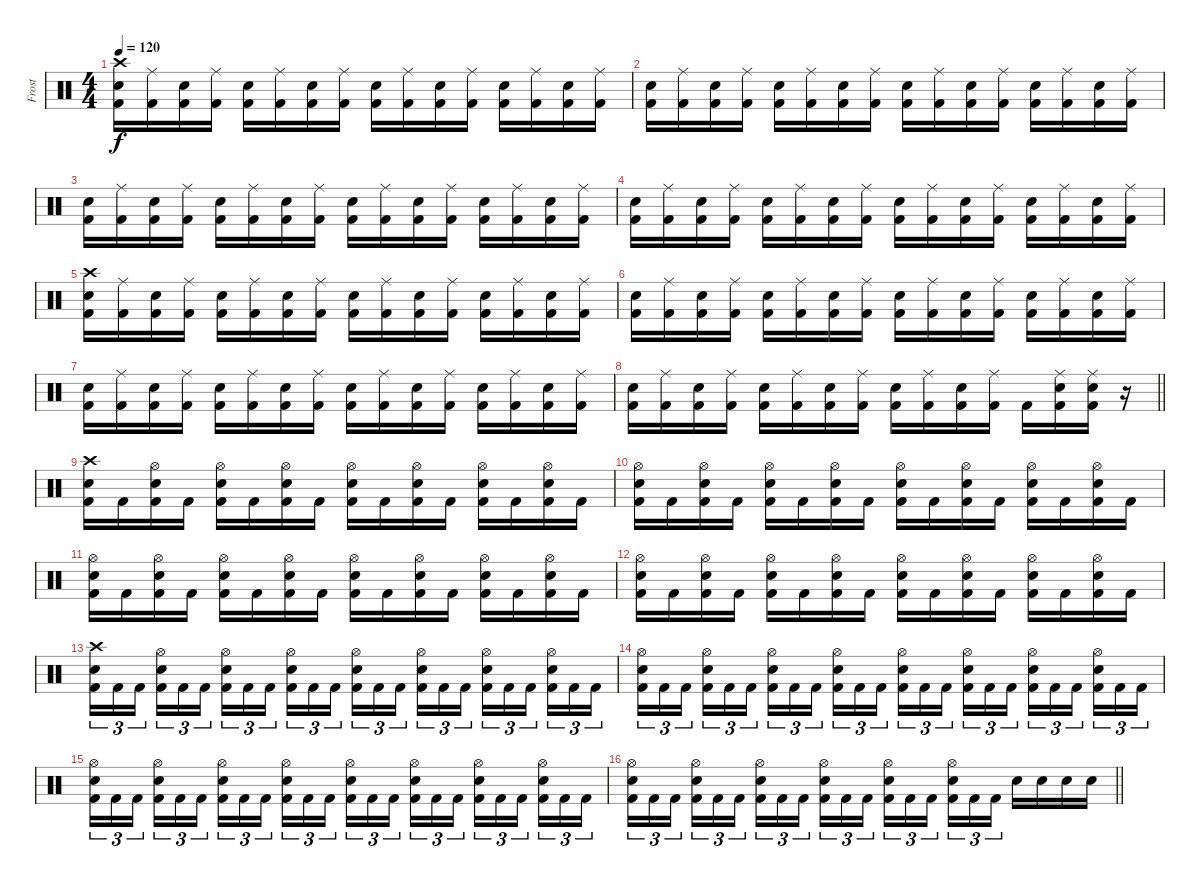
\track ("Frost" "Frost") {instrument percussion}
\staff {score}
\articulation defaults
\ts (4 4)
\tempo 120
\clef neutral
\ks c
("Crash high (hit)" "Electric Snare (hit)" "Kick (hit) 2").16{dy f} ("Ride (middle)" "Kick (hit) 2").16 ("Electric Snare (hit)" "Kick (hit) 2").16 ("Ride (middle)" "Kick (hit) 2").16 ("Electric Snare (hit)" "Kick (hit) 2").16 ("Ride (middle)" "Kick (hit) 2").16 ("Electric Snare (hit)" "Kick (hit) 2").16 ("Ride (middle)" "Kick (hit) 2").16 ("Electric Snare (hit)" "Kick (hit) 2").16 ("Ride (middle)" "Kick (hit) 2").16 ("Electric Snare (hit)" "Kick (hit) 2").16 ("Ride (middle)" "Kick (hit) 2").16 ("Electric Snare (hit)" "Kick (hit) 2").16 ("Ride (middle)" "Kick (hit) 2").16 ("Electric Snare (hit)" "Kick (hit) 2").16 ("Ride (middle)" "Kick (hit) 2").16 |
("Electric Snare (hit)" "Kick (hit) 2").16 ("Ride (middle)" "Kick (hit) 2").16 ("Electric Snare (hit)" "Kick (hit) 2").16 ("Ride (middle)" "Kick (hit) 2").16 ("Electric Snare (hit)" "Kick (hit) 2").16 ("Ride (middle)" "Kick (hit) 2").16 ("Electric Snare (hit)" "Kick (hit) 2").16 ("Ride (middle)" "Kick (hit) 2").16 ("Electric Snare (hit)" "Kick (hit) 2").16 ("Ride (middle)" "Kick (hit) 2").16 ("Electric Snare (hit)" "Kick (hit) 2").16 ("Ride (middle)" "Kick (hit) 2").16 ("Electric Snare (hit)" "Kick (hit) 2").16 ("Ride (middle)" "Kick (hit) 2").16 ("Electric Snare (hit)" "Kick (hit) 2").16 ("Ride (middle)" "Kick (hit) 2").16 |
("Electric Snare (hit)" "Kick (hit) 2").16 ("Ride (middle)" "Kick (hit) 2").16 ("Electric Snare (hit)" "Kick (hit) 2").16 ("Ride (middle)" "Kick (hit) 2").16 ("Electric Snare (hit)" "Kick (hit) 2").16 ("Ride (middle)" "Kick (hit) 2").16 ("Electric Snare (hit)" "Kick (hit) 2").16 ("Ride (middle)" "Kick (hit) 2").16 ("Electric Snare (hit)" "Kick (hit) 2").16 ("Ride (middle)" "Kick (hit) 2").16 ("Electric Snare (hit)" "Kick (hit) 2").16 ("Ride (middle)" "Kick (hit) 2").16 ("Electric Snare (hit)" "Kick (hit) 2").16 ("Ride (middle)" "Kick (hit) 2").16 ("Electric Snare (hit)" "Kick (hit) 2").16 ("Ride (middle)" "Kick (hit) 2").16 |
("Electric Snare (hit)" "Kick (hit) 2").16 ("Ride (middle)" "Kick (hit) 2").16 ("Electric Snare (hit)" "Kick (hit) 2").16 ("Ride (middle)" "Kick (hit) 2").16 ("Electric Snare (hit)" "Kick (hit) 2").16 ("Ride (middle)" "Kick (hit) 2").16 ("Electric Snare (hit)" "Kick (hit) 2").16 ("Ride (middle)" "Kick (hit) 2").16 ("Electric Snare (hit)" "Kick (hit) 2").16 ("Ride (middle)" "Kick (hit) 2").16 ("Electric Snare (hit)" "Kick (hit) 2").16 ("Ride (middle)" "Kick (hit) 2").16 ("Electric Snare (hit)" "Kick (hit) 2").16 ("Ride (middle)" "Kick (hit) 2").16 ("Electric Snare (hit)" "Kick (hit) 2").16 ("Ride (middle)" "Kick (hit) 2").16 |
("Crash high (hit)" "Electric Snare (hit)" "Kick (hit) 2").16 ("Ride (middle)" "Kick (hit) 2").16 ("Electric Snare (hit)" "Kick (hit) 2").16 ("Ride (middle)" "Kick (hit) 2").16 ("Electric Snare (hit)" "Kick (hit) 2").16 ("Ride (middle)" "Kick (hit) 2").16 ("Electric Snare (hit)" "Kick (hit) 2").16 ("Ride (middle)" "Kick (hit) 2").16 ("Electric Snare (hit)" "Kick (hit) 2").16 ("Ride (middle)" "Kick (hit) 2").16 ("Electric Snare (hit)" "Kick (hit) 2").16 ("Ride (middle)" "Kick (hit) 2").16 ("Electric Snare (hit)" "Kick (hit) 2").16 ("Ride (middle)" "Kick (hit) 2").16 ("Electric Snare (hit)" "Kick (hit) 2").16 ("Ride (middle)" "Kick (hit) 2").16 |
("Electric Snare (hit)" "Kick (hit) 2").16 ("Ride (middle)" "Kick (hit) 2").16 ("Electric Snare (hit)" "Kick (hit) 2").16 ("Ride (middle)" "Kick (hit) 2").16 ("Electric Snare (hit)" "Kick (hit) 2").16 ("Ride (middle)" "Kick (hit) 2").16 ("Electric Snare (hit)" "Kick (hit) 2").16 ("Ride (middle)" "Kick (hit) 2").16 ("Electric Snare (hit)" "Kick (hit) 2").16 ("Ride (middle)" "Kick (hit) 2").16 ("Electric Snare (hit)" "Kick (hit) 2").16 ("Ride (middle)" "Kick (hit) 2").16 ("Electric Snare (hit)" "Kick (hit) 2").16 ("Ride (middle)" "Kick (hit) 2").16 ("Electric Snare (hit)" "Kick (hit) 2").16 ("Ride (middle)" "Kick (hit) 2").16 |
("Electric Snare (hit)" "Kick (hit) 2").16 ("Ride (middle)" "Kick (hit) 2").16 ("Electric Snare (hit)" "Kick (hit) 2").16 ("Ride (middle)" "Kick (hit) 2").16 ("Electric Snare (hit)" "Kick (hit) 2").16 ("Ride (middle)" "Kick (hit) 2").16 ("Electric Snare (hit)" "Kick (hit) 2").16 ("Ride (middle)" "Kick (hit) 2").16 ("Electric Snare (hit)" "Kick (hit) 2").16 ("Ride (middle)" "Kick (hit) 2").16 ("Electric Snare (hit)" "Kick (hit) 2").16 ("Ride (middle)" "Kick (hit) 2").16 ("Electric Snare (hit)" "Kick (hit) 2").16 ("Ride (middle)" "Kick (hit) 2").16 ("Electric Snare (hit)" "Kick (hit) 2").16 ("Ride (middle)" "Kick (hit) 2").16 |
\barLineRight lightlight
("Electric Snare (hit)" "Kick (hit) 2").16 ("Ride (middle)" "Kick (hit) 2").16 ("Electric Snare (hit)" "Kick (hit) 2").16 ("Ride (middle)" "Kick (hit) 2").16 ("Electric Snare (hit)" "Kick (hit) 2").16 ("Ride (middle)" "Kick (hit) 2").16 ("Electric Snare (hit)" "Kick (hit) 2").16 ("Ride (middle)" "Kick (hit) 2").16 ("Electric Snare (hit)" "Kick (hit) 2").16 ("Ride (middle)" "Kick (hit) 2").16 ("Electric Snare (hit)" "Kick (hit) 2").16 ("Ride (middle)" "Kick (hit) 2").16 "Kick (hit) 2".16 ("Ride (middle)" "Electric Snare (hit)" "Kick (hit) 2").16 ("Ride (middle)" "Electric Snare (hit)" "Kick (hit) 2").16 r.16 |
\section ("" "")
("Crash high (hit)" "Electric Snare (hit)" "Kick (hit) 2").16 "Kick (hit) 2".16 ("Hi-Hat (open)" "Electric Snare (hit)" "Kick (hit) 2").16 "Kick (hit) 2".16 ("Hi-Hat (open)" "Electric Snare (hit)" "Kick (hit) 2").16 "Kick (hit) 2".16 ("Hi-Hat (open)" "Electric Snare (hit)" "Kick (hit) 2").16 "Kick (hit) 2".16 ("Hi-Hat (open)" "Electric Snare (hit)" "Kick (hit) 2").16 "Kick (hit) 2".16 ("Hi-Hat (open)" "Electric Snare (hit)" "Kick (hit) 2").16 "Kick (hit) 2".16 ("Hi-Hat (open)" "Electric Snare (hit)" "Kick (hit) 2").16 "Kick (hit) 2".16 ("Hi-Hat (open)" "Electric Snare (hit)" "Kick (hit) 2").16 "Kick (hit) 2".16 |
("Hi-Hat (open)" "Electric Snare (hit)" "Kick (hit) 2").16 "Kick (hit) 2".16 ("Hi-Hat (open)" "Electric Snare (hit)" "Kick (hit) 2").16 "Kick (hit) 2".16 ("Hi-Hat (open)" "Electric Snare (hit)" "Kick (hit) 2").16 "Kick (hit) 2".16 ("Hi-Hat (open)" "Electric Snare (hit)" "Kick (hit) 2").16 "Kick (hit) 2".16 ("Hi-Hat (open)" "Electric Snare (hit)" "Kick (hit) 2").16 "Kick (hit) 2".16 ("Hi-Hat (open)" "Electric Snare (hit)" "Kick (hit) 2").16 "Kick (hit) 2".16 ("Hi-Hat (open)" "Electric Snare (hit)" "Kick (hit) 2").16 "Kick (hit) 2".16 ("Hi-Hat (open)" "Electric Snare (hit)" "Kick (hit) 2").16 "Kick (hit) 2".16 |
("Hi-Hat (open)" "Electric Snare (hit)" "Kick (hit) 2").16 "Kick (hit) 2".16 ("Hi-Hat (open)" "Electric Snare (hit)" "Kick (hit) 2").16 "Kick (hit) 2".16 ("Hi-Hat (open)" "Electric Snare (hit)" "Kick (hit) 2").16 "Kick (hit) 2".16 ("Hi-Hat (open)" "Electric Snare (hit)" "Kick (hit) 2").16 "Kick (hit) 2".16 ("Hi-Hat (open)" "Electric Snare (hit)" "Kick (hit) 2").16 "Kick (hit) 2".16 ("Hi-Hat (open)" "Electric Snare (hit)" "Kick (hit) 2").16 "Kick (hit) 2".16 ("Hi-Hat (open)" "Electric Snare (hit)" "Kick (hit) 2").16 "Kick (hit) 2".16 ("Hi-Hat (open)" "Electric Snare (hit)" "Kick (hit) 2").16 "Kick (hit) 2".16 |
("Hi-Hat (open)" "Electric Snare (hit)" "Kick (hit) 2").16 "Kick (hit) 2".16 ("Hi-Hat (open)" "Electric Snare (hit)" "Kick (hit) 2").16 "Kick (hit) 2".16 ("Hi-Hat (open)" "Electric Snare (hit)" "Kick (hit) 2").16 "Kick (hit) 2".16 ("Hi-Hat (open)" "Electric Snare (hit)" "Kick (hit) 2").16 "Kick (hit) 2".16 ("Hi-Hat (open)" "Electric Snare (hit)" "Kick (hit) 2").16 "Kick (hit) 2".16 ("Hi-Hat (open)" "Electric Snare (hit)" "Kick (hit) 2").16 "Kick (hit) 2".16 ("Hi-Hat (open)" "Electric Snare (hit)" "Kick (hit) 2").16 "Kick (hit) 2".16 ("Hi-Hat (open)" "Electric Snare (hit)" "Kick (hit) 2").16 "Kick (hit) 2".16 |
("Crash high (hit)" "Electric Snare (hit)" "Kick (hit) 2").16{tu (3 2)} "Kick (hit) 2".16{tu (3 2)} "Kick (hit) 2".16{tu (3 2) beam splitsecondary} ("Hi-Hat (open)" "Electric Snare (hit)" "Kick (hit) 2").16{tu (3 2)} "Kick (hit) 2".16{tu (3 2)} "Kick (hit) 2".16{tu (3 2)} ("Hi-Hat (open)" "Electric Snare (hit)" "Kick (hit) 2").16{tu (3 2)} "Kick (hit) 2".16{tu (3 2)} "Kick (hit) 2".16{tu (3 2) beam splitsecondary} ("Hi-Hat (open)" "Electric Snare (hit)" "Kick (hit) 2").16{tu (3 2)} "Kick (hit) 2".16{tu (3 2)} "Kick (hit) 2".16{tu (3 2)} ("Hi-Hat (open)" "Electric Snare (hit)" "Kick (hit) 2").16{tu (3 2)} "Kick (hit) 2".16{tu (3 2)} "Kick (hit) 2".16{tu (3 2) beam splitsecondary} ("Hi-Hat (open)" "Electric Snare (hit)" "Kick (hit) 2").16{tu (3 2)} "Kick (hit) 2".16{tu (3 2)} "Kick (hit) 2".16{tu (3 2)} ("Hi-Hat (open)" "Electric Snare (hit)" "Kick (hit) 2").16{tu (3 2)} "Kick (hit) 2".16{tu (3 2)} "Kick (hit) 2".16{tu (3 2) beam splitsecondary} ("Hi-Hat (open)" "Electric Snare (hit)" "Kick (hit) 2").16{tu (3 2)} "Kick (hit) 2".16{tu (3 2)} "Kick (hit) 2".16{tu (3 2)} |
("Hi-Hat (open)" "Electric Snare (hit)" "Kick (hit) 2").16{tu (3 2)} "Kick (hit) 2".16{tu (3 2)} "Kick (hit) 2".16{tu (3 2) beam splitsecondary} ("Hi-Hat (open)" "Electric Snare (hit)" "Kick (hit) 2").16{tu (3 2)} "Kick (hit) 2".16{tu (3 2)} "Kick (hit) 2".16{tu (3 2)} ("Hi-Hat (open)" "Electric Snare (hit)" "Kick (hit) 2").16{tu (3 2)} "Kick (hit) 2".16{tu (3 2)} "Kick (hit) 2".16{tu (3 2) beam splitsecondary} ("Hi-Hat (open)" "Electric Snare (hit)" "Kick (hit) 2").16{tu (3 2)} "Kick (hit) 2".16{tu (3 2)} "Kick (hit) 2".16{tu (3 2)} ("Hi-Hat (open)" "Electric Snare (hit)" "Kick (hit) 2").16{tu (3 2)} "Kick (hit) 2".16{tu (3 2)} "Kick (hit) 2".16{tu (3 2) beam splitsecondary} ("Hi-Hat (open)" "Electric Snare (hit)" "Kick (hit) 2").16{tu (3 2)} "Kick (hit) 2".16{tu (3 2)} "Kick (hit) 2".16{tu (3 2)} ("Hi-Hat (open)" "Electric Snare (hit)" "Kick (hit) 2").16{tu (3 2)} "Kick (hit) 2".16{tu (3 2)} "Kick (hit) 2".16{tu (3 2) beam splitsecondary} ("Hi-Hat (open)" "Electric Snare (hit)" "Kick (hit) 2").16{tu (3 2)} "Kick (hit) 2".16{tu (3 2)} "Kick (hit) 2".16{tu (3 2)} |
("Hi-Hat (open)" "Electric Snare (hit)" "Kick (hit) 2").16{tu (3 2)} "Kick (hit) 2".16{tu (3 2)} "Kick (hit) 2".16{tu (3 2) beam splitsecondary} ("Hi-Hat (open)" "Electric Snare (hit)" "Kick (hit) 2").16{tu (3 2)} "Kick (hit) 2".16{tu (3 2)} "Kick (hit) 2".16{tu (3 2)} ("Hi-Hat (open)" "Electric Snare (hit)" "Kick (hit) 2").16{tu (3 2)} "Kick (hit) 2".16{tu (3 2)} "Kick (hit) 2".16{tu (3 2) beam splitsecondary} ("Hi-Hat (open)" "Electric Snare (hit)" "Kick (hit) 2").16{tu (3 2)} "Kick (hit) 2".16{tu (3 2)} "Kick (hit) 2".16{tu (3 2)} ("Hi-Hat (open)" "Electric Snare (hit)" "Kick (hit) 2").16{tu (3 2)} "Kick (hit) 2".16{tu (3 2)} "Kick (hit) 2".16{tu (3 2) beam splitsecondary} ("Hi-Hat (open)" "Electric Snare (hit)" "Kick (hit) 2").16{tu (3 2)} "Kick (hit) 2".16{tu (3 2)} "Kick (hit) 2".16{tu (3 2)} ("Hi-Hat (open)" "Electric Snare (hit)" "Kick (hit) 2").16{tu (3 2)} "Kick (hit) 2".16{tu (3 2)} "Kick (hit) 2".16{tu (3 2) beam splitsecondary} ("Hi-Hat (open)" "Electric Snare (hit)" "Kick (hit) 2").16{tu (3 2)} "Kick (hit) 2".16{tu (3 2)} "Kick (hit) 2".16{tu (3 2)} |
\barLineRight lightlight
("Hi-Hat (open)" "Electric Snare (hit)" "Kick (hit) 2").16{tu (3 2)} "Kick (hit) 2".16{tu (3 2)} "Kick (hit) 2".16{tu (3 2) beam splitsecondary} ("Hi-Hat (open)" "Electric Snare (hit)" "Kick (hit) 2").16{tu (3 2)} "Kick (hit) 2".16{tu (3 2)} "Kick (hit) 2".16{tu (3 2)} ("Hi-Hat (open)" "Electric Snare (hit)" "Kick (hit) 2").16{tu (3 2)} "Kick (hit) 2".16{tu (3 2)} "Kick (hit) 2".16{tu (3 2) beam splitsecondary} ("Hi-Hat (open)" "Electric Snare (hit)" "Kick (hit) 2").16{tu (3 2)} "Kick (hit) 2".16{tu (3 2)} "Kick (hit) 2".16{tu (3 2)} ("Hi-Hat (open)" "Electric Snare (hit)" "Kick (hit) 2").16{tu (3 2)} "Kick (hit) 2".16{tu (3 2)} "Kick (hit) 2".16{tu (3 2) beam splitsecondary} ("Hi-Hat (open)" "Electric Snare (hit)" "Kick (hit) 2").16{tu (3 2)} "Kick (hit) 2".16{tu (3 2)} "Kick (hit) 2".16{tu (3 2)} "Electric Snare (hit)".16 "Electric Snare (hit)".16 "Electric Snare (hit)".16 "Electric Snare (hit)".16
